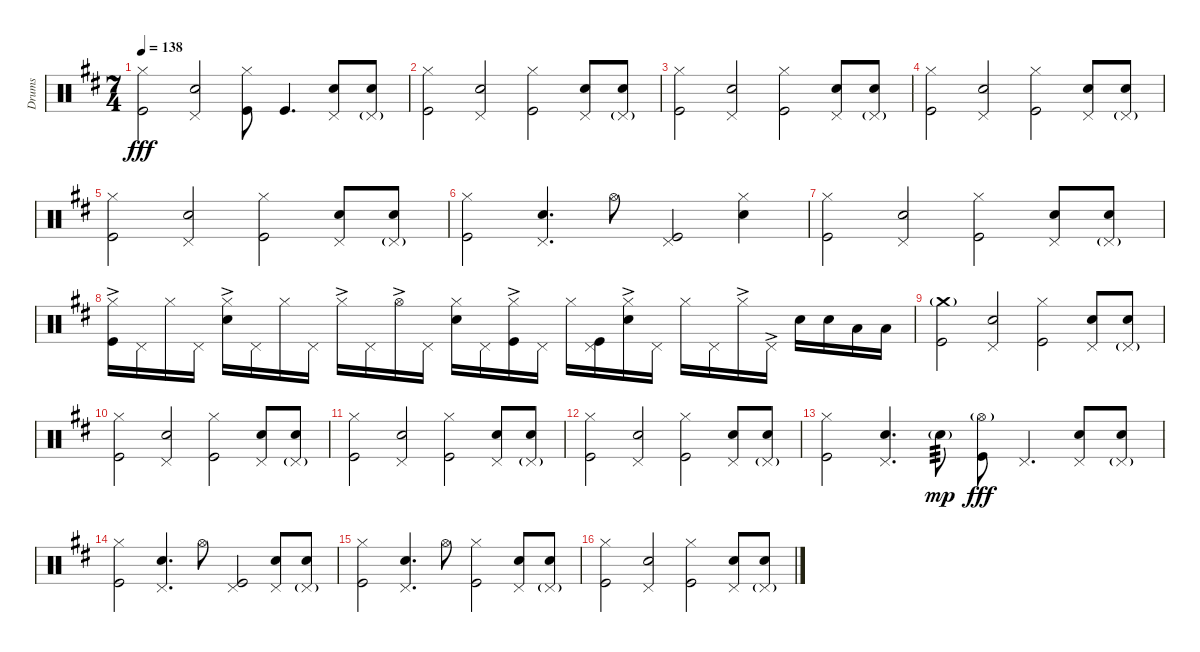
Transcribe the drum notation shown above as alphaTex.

\track ("Drums" "Drums") {instrument percussion}
\staff {score}
\articulation defaults
\ts (7 4)
\tempo 138
\clef neutral
\ks d
("Hi-Hat (closed)" "Kick (hit)").2{dy fff} ("Pedal Hi-Hat (hit)" "Electric Snare (hit)").2 ("Hi-Hat (closed)" "Kick (hit)").8 "Kick (hit)".4{d} ("Pedal Hi-Hat (hit)" "Electric Snare (hit)").8 ("Pedal Hi-Hat (hit)"{g} "Electric Snare (hit)").8 |
("Hi-Hat (closed)" "Kick (hit)").2 ("Pedal Hi-Hat (hit)" "Electric Snare (hit)").2 ("Hi-Hat (closed)" "Kick (hit)").2 ("Pedal Hi-Hat (hit)" "Electric Snare (hit)").8 ("Pedal Hi-Hat (hit)"{g} "Electric Snare (hit)").8 |
("Hi-Hat (closed)" "Kick (hit)").2 ("Pedal Hi-Hat (hit)" "Electric Snare (hit)").2 ("Hi-Hat (closed)" "Kick (hit)").2 ("Pedal Hi-Hat (hit)" "Electric Snare (hit)").8 ("Pedal Hi-Hat (hit)"{g} "Electric Snare (hit)").8 |
("Hi-Hat (closed)" "Kick (hit)").2 ("Pedal Hi-Hat (hit)" "Electric Snare (hit)").2 ("Hi-Hat (closed)" "Kick (hit)").2 ("Pedal Hi-Hat (hit)" "Electric Snare (hit)").8 ("Pedal Hi-Hat (hit)"{g} "Electric Snare (hit)").8 |
("Hi-Hat (closed)" "Kick (hit)").2 ("Pedal Hi-Hat (hit)" "Electric Snare (hit)").2 ("Hi-Hat (closed)" "Kick (hit)").2 ("Pedal Hi-Hat (hit)" "Electric Snare (hit)").8 ("Pedal Hi-Hat (hit)"{g} "Electric Snare (hit)").8 |
("Hi-Hat (closed)" "Kick (hit)").2 ("Pedal Hi-Hat (hit)" "Electric Snare (hit)").4{d} "Hi-Hat (open)".8 ("Pedal Hi-Hat (hit)" "Kick (hit)").2 ("Hi-Hat (closed)" "Electric Snare (hit)").4 |
("Hi-Hat (closed)" "Kick (hit)").2 ("Pedal Hi-Hat (hit)" "Electric Snare (hit)").2 ("Hi-Hat (closed)" "Kick (hit)").2 ("Pedal Hi-Hat (hit)" "Electric Snare (hit)").8 ("Pedal Hi-Hat (hit)"{g} "Electric Snare (hit)").8 |
("Hi-Hat (closed)"{ac} "Kick (hit)").16 "Pedal Hi-Hat (hit)".16 "Hi-Hat (closed)".16 "Pedal Hi-Hat (hit)".16 ("Hi-Hat (closed)"{ac} "Electric Snare (hit)").16 "Pedal Hi-Hat (hit)".16 "Hi-Hat (closed)".16 "Pedal Hi-Hat (hit)".16 "Hi-Hat (closed)"{ac}.16 "Pedal Hi-Hat (hit)".16 "Hi-Hat (open)"{ac}.16 "Pedal Hi-Hat (hit)".16 ("Hi-Hat (closed)" "Electric Snare (hit)").16 "Pedal Hi-Hat (hit)".16 ("Hi-Hat (closed)"{ac} "Kick (hit)").16 "Pedal Hi-Hat (hit)".16 "Hi-Hat (closed)".16 ("Pedal Hi-Hat (hit)" "Kick (hit)").16 ("Hi-Hat (closed)"{ac} "Electric Snare (hit)").16 "Pedal Hi-Hat (hit)".16 "Hi-Hat (closed)".16 "Pedal Hi-Hat (hit)".16 "Hi-Hat (closed)"{ac}.16 "Pedal Hi-Hat (hit)"{ac}.16 "Electric Snare (hit)".16 "Electric Snare (hit)".16 "Low Tom (hit)".16 "Low Tom (hit)".16 |
("Crash medium (hit)"{g} "Kick (hit)").2 ("Pedal Hi-Hat (hit)" "Electric Snare (hit)").2 ("Hi-Hat (closed)" "Kick (hit)").2 ("Pedal Hi-Hat (hit)" "Electric Snare (hit)").8 ("Pedal Hi-Hat (hit)"{g} "Electric Snare (hit)").8 |
("Hi-Hat (closed)" "Kick (hit)").2 ("Pedal Hi-Hat (hit)" "Electric Snare (hit)").2 ("Hi-Hat (closed)" "Kick (hit)").2 ("Pedal Hi-Hat (hit)" "Electric Snare (hit)").8 ("Pedal Hi-Hat (hit)"{g} "Electric Snare (hit)").8 |
("Hi-Hat (closed)" "Kick (hit)").2 ("Pedal Hi-Hat (hit)" "Electric Snare (hit)").2 ("Hi-Hat (closed)" "Kick (hit)").2 ("Pedal Hi-Hat (hit)" "Electric Snare (hit)").8 ("Pedal Hi-Hat (hit)"{g} "Electric Snare (hit)").8 |
("Hi-Hat (closed)" "Kick (hit)").2 ("Pedal Hi-Hat (hit)" "Electric Snare (hit)").2 ("Hi-Hat (closed)" "Kick (hit)").2 ("Pedal Hi-Hat (hit)" "Electric Snare (hit)").8 ("Pedal Hi-Hat (hit)"{g} "Electric Snare (hit)").8 |
("Hi-Hat (closed)" "Kick (hit)").2 ("Pedal Hi-Hat (hit)" "Electric Snare (hit)").4{d} "Electric Snare (hit)"{g}.8{tp 3 dy mp} ("Hi-Hat (open)"{g} "Kick (hit)").8{dy fff} "Pedal Hi-Hat (hit)".4{d} ("Pedal Hi-Hat (hit)" "Electric Snare (hit)").8 ("Pedal Hi-Hat (hit)"{g} "Electric Snare (hit)").8 |
("Hi-Hat (closed)" "Kick (hit)").2 ("Pedal Hi-Hat (hit)" "Electric Snare (hit)").4{d} "Hi-Hat (open)".8 ("Pedal Hi-Hat (hit)" "Kick (hit)").2 ("Pedal Hi-Hat (hit)" "Electric Snare (hit)").8 ("Pedal Hi-Hat (hit)"{g} "Electric Snare (hit)").8 |
("Hi-Hat (closed)" "Kick (hit)").2 ("Pedal Hi-Hat (hit)" "Electric Snare (hit)").4{d} "Hi-Hat (open)".8 ("Hi-Hat (closed)" "Kick (hit)").2 ("Pedal Hi-Hat (hit)" "Electric Snare (hit)").8 ("Pedal Hi-Hat (hit)"{g} "Electric Snare (hit)").8 |
("Hi-Hat (closed)" "Kick (hit)").2 ("Pedal Hi-Hat (hit)" "Electric Snare (hit)").2 ("Hi-Hat (closed)" "Kick (hit)").2 ("Pedal Hi-Hat (hit)" "Electric Snare (hit)").8 ("Pedal Hi-Hat (hit)"{g} "Electric Snare (hit)").8
